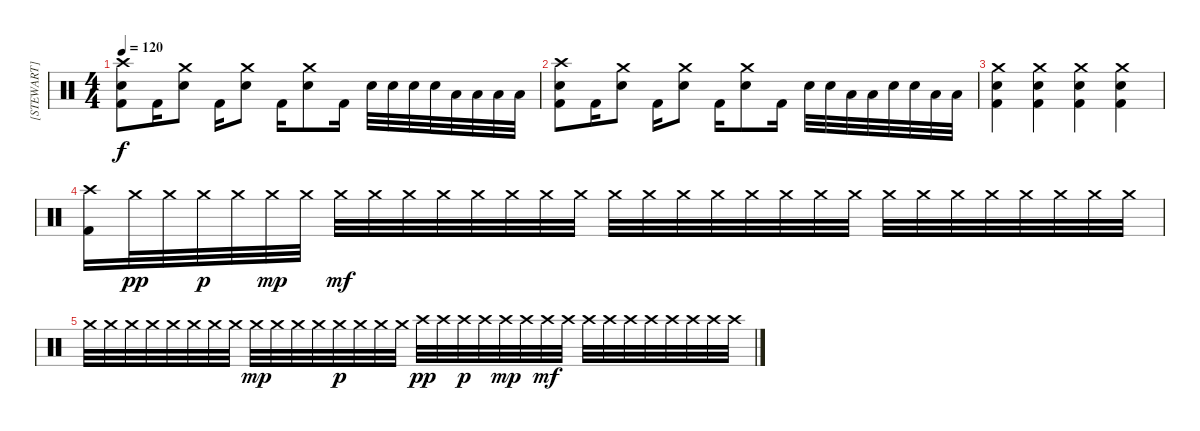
\track ("[STEWART]" "[STEWART]") {instrument percussion}
\staff {score}
\articulation defaults
\ts (4 4)
\tempo 120
\clef neutral
\ks c
("Crash high (hit)" "Electric Snare (hit)" "Kick (hit) 2").8{dy f} "Kick (hit) 2".16 ("Crash medium (hit)" "Electric Snare (hit)").8 "Kick (hit) 2".16 ("Crash medium (hit)" "Electric Snare (hit)").8 "Kick (hit) 2".16 ("Crash medium (hit)" "Electric Snare (hit)").8 "Kick (hit) 2".16 "Electric Snare (hit)".32 "Electric Snare (hit)".32 "Electric Snare (hit)".32 "Electric Snare (hit)".32 "Low Tom (hit)".32 "Low Tom (hit)".32 "Low Tom (hit)".32 "Low Tom (hit)".32 |
("Crash high (hit)" "Electric Snare (hit)" "Kick (hit) 2").8 "Kick (hit) 2".16 ("Crash medium (hit)" "Electric Snare (hit)").8 "Kick (hit) 2".16 ("Crash medium (hit)" "Electric Snare (hit)").8 "Kick (hit) 2".16 ("Crash medium (hit)" "Electric Snare (hit)").8 "Kick (hit) 2".16 "Electric Snare (hit)".32 "Electric Snare (hit)".32 "Low Tom (hit)".32 "Low Tom (hit)".32 "Electric Snare (hit)".32 "Electric Snare (hit)".32 "Low Tom (hit)".32 "Low Tom (hit)".32 |
("Crash medium (hit)" "Electric Snare (hit)" "Kick (hit) 2").4 ("Crash medium (hit)" "Electric Snare (hit)" "Kick (hit) 2").4 ("Crash medium (hit)" "Electric Snare (hit)" "Kick (hit) 2").4 ("Crash medium (hit)" "Electric Snare (hit)" "Kick (hit) 2").4 |
("Crash high (hit)" "Kick (hit) 2").16 "Crash medium (hit)".32{dy pp} "Crash medium (hit)".32 "Crash medium (hit)".32{dy p} "Crash medium (hit)".32 "Crash medium (hit)".32{dy mp} "Crash medium (hit)".32 "Crash medium (hit)".32{dy mf} "Crash medium (hit)".32 "Crash medium (hit)".32 "Crash medium (hit)".32 "Crash medium (hit)".32 "Crash medium (hit)".32 "Crash medium (hit)".32 "Crash medium (hit)".32 "Crash medium (hit)".32 "Crash medium (hit)".32 "Crash medium (hit)".32 "Crash medium (hit)".32 "Crash medium (hit)".32 "Crash medium (hit)".32 "Crash medium (hit)".32 "Crash medium (hit)".32 "Crash medium (hit)".32 "Crash medium (hit)".32 "Crash medium (hit)".32 "Crash medium (hit)".32 "Crash medium (hit)".32 "Crash medium (hit)".32 "Crash medium (hit)".32 "Crash medium (hit)".32 |
"Crash medium (hit)".32 "Crash medium (hit)".32 "Crash medium (hit)".32 "Crash medium (hit)".32 "Crash medium (hit)".32 "Crash medium (hit)".32 "Crash medium (hit)".32 "Crash medium (hit)".32 "Crash medium (hit)".32{dy mp} "Crash medium (hit)".32 "Crash medium (hit)".32 "Crash medium (hit)".32 "Crash medium (hit)".32{dy p} "Crash medium (hit)".32 "Crash medium (hit)".32 "Crash medium (hit)".32 "Crash high (hit)".32{dy pp} "Crash high (hit)".32 "Crash high (hit)".32{dy p} "Crash high (hit)".32 "Crash high (hit)".32{dy mp} "Crash high (hit)".32 "Crash high (hit)".32{dy mf} "Crash high (hit)".32 "Crash high (hit)".32 "Crash high (hit)".32 "Crash high (hit)".32 "Crash high (hit)".32 "Crash high (hit)".32 "Crash high (hit)".32 "Crash high (hit)".32 "Crash high (hit)".32
